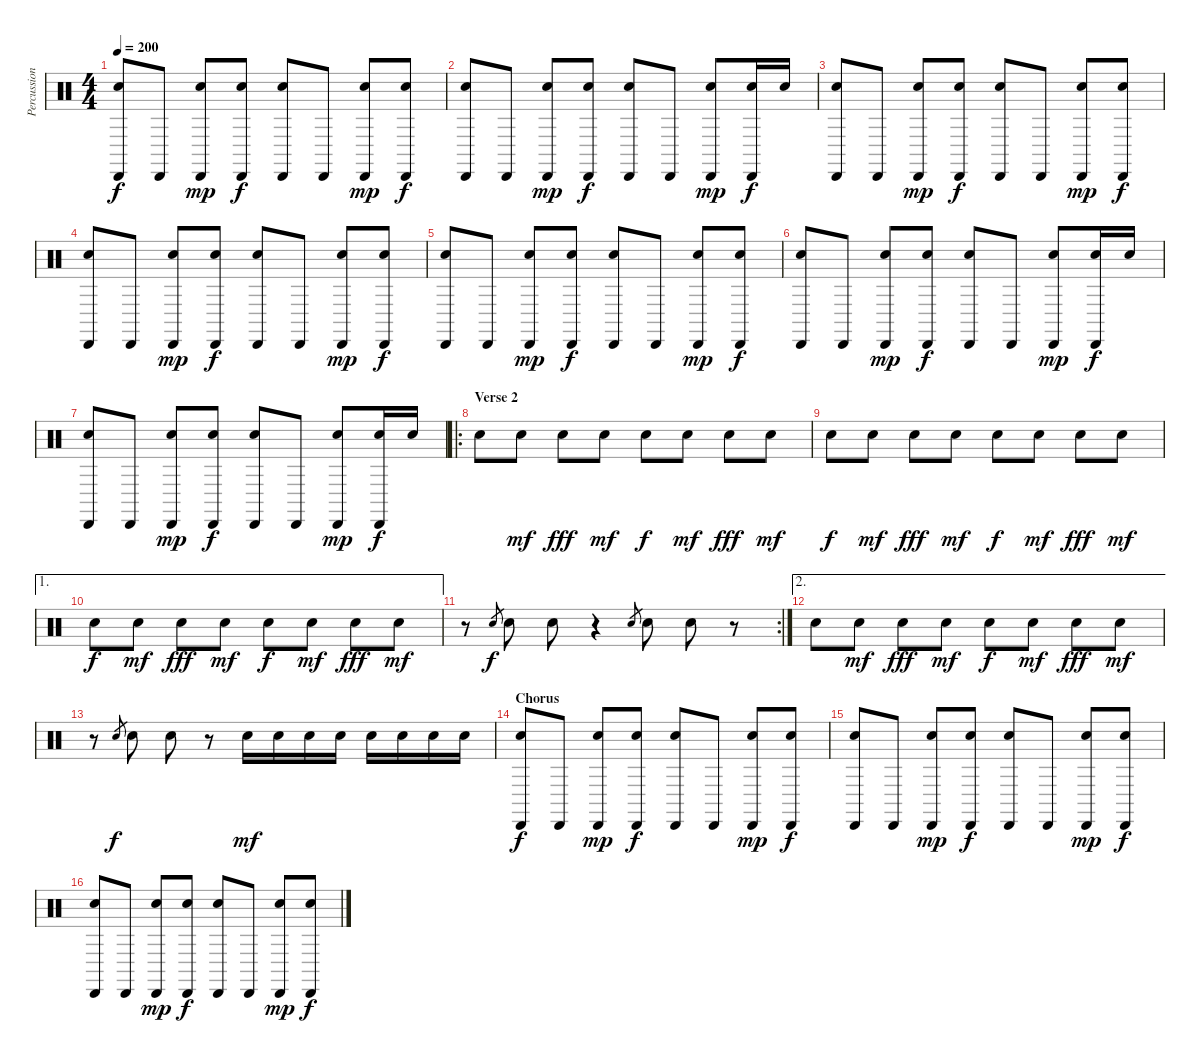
\track ("Percussion" "Percussion") {instrument percussion}
\staff {score}
\articulation defaults
\ts (4 4)
\tempo 200
\clef neutral
\ks c
("Cabasa (hit)" "Snare (hit) 2").8{dy f} "Cabasa (hit)".8 ("Cabasa (hit)" "Snare (hit) 2").8{dy mp} ("Cabasa (hit)" "Snare (hit) 2").8{dy f} ("Cabasa (hit)" "Snare (hit) 2").8 "Cabasa (hit)".8 ("Cabasa (hit)" "Snare (hit) 2").8{dy mp} ("Cabasa (hit)" "Snare (hit) 2").8{dy f} |
("Cabasa (hit)" "Snare (hit) 2").8 "Cabasa (hit)".8 ("Cabasa (hit)" "Snare (hit) 2").8{dy mp} ("Cabasa (hit)" "Snare (hit) 2").8{dy f} ("Cabasa (hit)" "Snare (hit) 2").8 "Cabasa (hit)".8 ("Cabasa (hit)" "Snare (hit) 2").8{dy mp} ("Cabasa (hit)" "Snare (hit) 2").16{dy f} "Snare (hit) 2".16 |
("Cabasa (hit)" "Snare (hit) 2").8 "Cabasa (hit)".8 ("Cabasa (hit)" "Snare (hit) 2").8{dy mp} ("Cabasa (hit)" "Snare (hit) 2").8{dy f} ("Cabasa (hit)" "Snare (hit) 2").8 "Cabasa (hit)".8 ("Cabasa (hit)" "Snare (hit) 2").8{dy mp} ("Cabasa (hit)" "Snare (hit) 2").8{dy f} |
("Cabasa (hit)" "Snare (hit) 2").8 "Cabasa (hit)".8 ("Cabasa (hit)" "Snare (hit) 2").8{dy mp} ("Cabasa (hit)" "Snare (hit) 2").8{dy f} ("Cabasa (hit)" "Snare (hit) 2").8 "Cabasa (hit)".8 ("Cabasa (hit)" "Snare (hit) 2").8{dy mp} ("Cabasa (hit)" "Snare (hit) 2").8{dy f} |
("Cabasa (hit)" "Snare (hit) 2").8 "Cabasa (hit)".8 ("Cabasa (hit)" "Snare (hit) 2").8{dy mp} ("Cabasa (hit)" "Snare (hit) 2").8{dy f} ("Cabasa (hit)" "Snare (hit) 2").8 "Cabasa (hit)".8 ("Cabasa (hit)" "Snare (hit) 2").8{dy mp} ("Cabasa (hit)" "Snare (hit) 2").8{dy f} |
("Cabasa (hit)" "Snare (hit) 2").8 "Cabasa (hit)".8 ("Cabasa (hit)" "Snare (hit) 2").8{dy mp} ("Cabasa (hit)" "Snare (hit) 2").8{dy f} ("Cabasa (hit)" "Snare (hit) 2").8 "Cabasa (hit)".8 ("Cabasa (hit)" "Snare (hit) 2").8{dy mp} ("Cabasa (hit)" "Snare (hit) 2").16{dy f} "Snare (hit) 2".16 |
("Cabasa (hit)" "Snare (hit) 2").8 "Cabasa (hit)".8 ("Cabasa (hit)" "Snare (hit) 2").8{dy mp} ("Cabasa (hit)" "Snare (hit) 2").8{dy f} ("Cabasa (hit)" "Snare (hit) 2").8 "Cabasa (hit)".8 ("Cabasa (hit)" "Snare (hit) 2").8{dy mp} ("Cabasa (hit)" "Snare (hit) 2").16{dy f} "Snare (hit) 2".16 |
\ro
\section ("" "Verse 2")
"Snare (hit) 2".8 "Snare (hit) 2".8{dy mf} "Snare (hit) 2".8{dy fff} "Snare (hit) 2".8{dy mf} "Snare (hit) 2".8{dy f} "Snare (hit) 2".8{dy mf} "Snare (hit) 2".8{dy fff} "Snare (hit) 2".8{dy mf} |
"Snare (hit) 2".8{dy f} "Snare (hit) 2".8{dy mf} "Snare (hit) 2".8{dy fff} "Snare (hit) 2".8{dy mf} "Snare (hit) 2".8{dy f} "Snare (hit) 2".8{dy mf} "Snare (hit) 2".8{dy fff} "Snare (hit) 2".8{dy mf} |
\ae 1 "Snare (hit) 2".8{dy f} "Snare (hit) 2".8{dy mf} "Snare (hit) 2".8{dy fff} "Snare (hit) 2".8{dy mf} "Snare (hit) 2".8{dy f} "Snare (hit) 2".8{dy mf} "Snare (hit) 2".8{dy fff} "Snare (hit) 2".8{dy mf}
|
\rc 2
r.8 "Snare (hit) 2".8{gr dy f} "Snare (hit) 2".8 "Snare (hit) 2".8 r.4 "Snare (hit) 2".8{gr} "Snare (hit) 2".8 "Snare (hit) 2".8 r.8 |
\ae 2 "Snare (hit) 2".8 "Snare (hit) 2".8{dy mf} "Snare (hit) 2".8{dy fff} "Snare (hit) 2".8{dy mf} "Snare (hit) 2".8{dy f} "Snare (hit) 2".8{dy mf} "Snare (hit) 2".8{dy fff} "Snare (hit) 2".8{dy mf}
|
r.8 "Snare (hit) 2".8{gr dy f} "Snare (hit) 2".8 "Snare (hit) 2".8 r.8 "Snare (hit) 2".16{dy mf} "Snare (hit) 2".16 "Snare (hit) 2".16 "Snare (hit) 2".16 "Snare (hit) 2".16 "Snare (hit) 2".16 "Snare (hit) 2".16 "Snare (hit) 2".16 |
\section ("" "Chorus")
("Cabasa (hit)" "Snare (hit) 2").8{dy f} "Cabasa (hit)".8 ("Cabasa (hit)" "Snare (hit) 2").8{dy mp} ("Cabasa (hit)" "Snare (hit) 2").8{dy f} ("Cabasa (hit)" "Snare (hit) 2").8 "Cabasa (hit)".8 ("Cabasa (hit)" "Snare (hit) 2").8{dy mp} ("Cabasa (hit)" "Snare (hit) 2").8{dy f} |
("Cabasa (hit)" "Snare (hit) 2").8 "Cabasa (hit)".8 ("Cabasa (hit)" "Snare (hit) 2").8{dy mp} ("Cabasa (hit)" "Snare (hit) 2").8{dy f} ("Cabasa (hit)" "Snare (hit) 2").8 "Cabasa (hit)".8 ("Cabasa (hit)" "Snare (hit) 2").8{dy mp} ("Cabasa (hit)" "Snare (hit) 2").8{dy f} |
("Cabasa (hit)" "Snare (hit) 2").8 "Cabasa (hit)".8 ("Cabasa (hit)" "Snare (hit) 2").8{dy mp} ("Cabasa (hit)" "Snare (hit) 2").8{dy f} ("Cabasa (hit)" "Snare (hit) 2").8 "Cabasa (hit)".8 ("Cabasa (hit)" "Snare (hit) 2").8{dy mp} ("Cabasa (hit)" "Snare (hit) 2").8{dy f}
